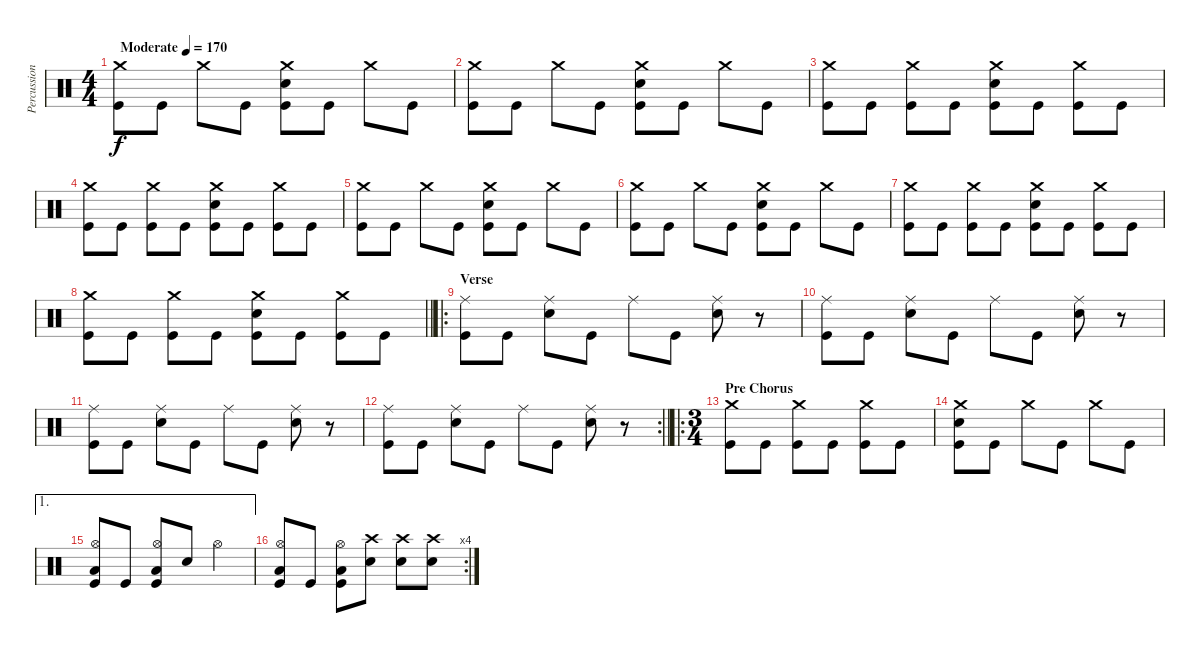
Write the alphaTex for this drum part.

\track ("Percussion" "Percussion") {instrument percussion}
\staff {score}
\articulation defaults
\ts (4 4)
\tempo (170 "Moderate")
\clef neutral
\ks c
("Crash medium (hit)" "Kick (hit)").8{dy f} "Kick (hit)".8 "Crash medium (hit)".8 "Kick (hit)".8 ("Crash medium (hit)" "Snare (hit) 2" "Kick (hit)").8 "Kick (hit)".8 "Crash medium (hit)".8 "Kick (hit)".8 |
("Crash medium (hit)" "Kick (hit)").8 "Kick (hit)".8 "Crash medium (hit)".8 "Kick (hit)".8 ("Crash medium (hit)" "Snare (hit) 2" "Kick (hit)").8 "Kick (hit)".8 "Crash medium (hit)".8 "Kick (hit)".8 |
("Crash medium (hit)" "Kick (hit)").8 "Kick (hit)".8 ("Crash medium (hit)" "Kick (hit)").8 "Kick (hit)".8 ("Crash medium (hit)" "Snare (hit) 2" "Kick (hit)").8 "Kick (hit)".8 ("Crash medium (hit)" "Kick (hit)").8 "Kick (hit)".8 |
("Crash medium (hit)" "Kick (hit)").8 "Kick (hit)".8 ("Crash medium (hit)" "Kick (hit)").8 "Kick (hit)".8 ("Crash medium (hit)" "Snare (hit) 2" "Kick (hit)").8 "Kick (hit)".8 ("Crash medium (hit)" "Kick (hit)").8 "Kick (hit)".8 |
("Crash medium (hit)" "Kick (hit)").8 "Kick (hit)".8 "Crash medium (hit)".8 "Kick (hit)".8 ("Crash medium (hit)" "Snare (hit) 2" "Kick (hit)").8 "Kick (hit)".8 "Crash medium (hit)".8 "Kick (hit)".8 |
("Crash medium (hit)" "Kick (hit)").8 "Kick (hit)".8 "Crash medium (hit)".8 "Kick (hit)".8 ("Crash medium (hit)" "Snare (hit) 2" "Kick (hit)").8 "Kick (hit)".8 "Crash medium (hit)".8 "Kick (hit)".8 |
("Crash medium (hit)" "Kick (hit)").8 "Kick (hit)".8 ("Crash medium (hit)" "Kick (hit)").8 "Kick (hit)".8 ("Crash medium (hit)" "Snare (hit) 2" "Kick (hit)").8 "Kick (hit)".8 ("Crash medium (hit)" "Kick (hit)").8 "Kick (hit)".8 |
\barLineRight lightlight
("Crash medium (hit)" "Kick (hit)").8 "Kick (hit)".8 ("Crash medium (hit)" "Kick (hit)").8 "Kick (hit)".8 ("Crash medium (hit)" "Snare (hit) 2" "Kick (hit)").8 "Kick (hit)".8 ("Crash medium (hit)" "Kick (hit)").8 "Kick (hit)".8 |
\ro
\section ("" "Verse")
("Ride (middle)" "Kick (hit)").8 "Kick (hit)".8 ("Ride (middle)" "Snare (hit) 2").8 "Kick (hit)".8 "Ride (middle)".8 "Kick (hit)".8 ("Ride (middle)" "Snare (hit) 2").8 r.8 |
("Ride (middle)" "Kick (hit)").8 "Kick (hit)".8 ("Ride (middle)" "Snare (hit) 2").8 "Kick (hit)".8 "Ride (middle)".8 "Kick (hit)".8 ("Ride (middle)" "Snare (hit) 2").8 r.8 |
("Ride (middle)" "Kick (hit)").8 "Kick (hit)".8 ("Ride (middle)" "Snare (hit) 2").8 "Kick (hit)".8 "Ride (middle)".8 "Kick (hit)".8 ("Ride (middle)" "Snare (hit) 2").8 r.8 |
\rc 2
\barLineRight lightlight
("Ride (middle)" "Kick (hit)").8 "Kick (hit)".8 ("Ride (middle)" "Snare (hit) 2").8 "Kick (hit)".8 "Ride (middle)".8 "Kick (hit)".8 ("Ride (middle)" "Snare (hit) 2").8 r.8 |
\ro
\ts (3 4)
\section ("" "Pre Chorus")
("Crash medium (hit)" "Kick (hit)").8 "Kick (hit)".8 ("Crash medium (hit)" "Kick (hit)").8 "Kick (hit)".8 ("Crash medium (hit)" "Kick (hit)").8 "Kick (hit)".8 |
("Crash medium (hit)" "Snare (hit) 2" "Kick (hit)").8 "Kick (hit)".8 "Crash medium (hit)".8 "Kick (hit)".8 "Crash medium (hit)".8 "Kick (hit)".8 |
\ae 1
("Hi-Hat (open)" "Low Floor Tom (hit)" "Kick (hit)").8 "Kick (hit)".8 ("Hi-Hat (open)" "Low Floor Tom (hit)" "Kick (hit)").8 "Snare (hit) 2".8 "Hi-Hat (open)".4 |
\rc 4
("Hi-Hat (open)" "Low Floor Tom (hit)" "Kick (hit)").8 "Kick (hit)".8 ("Hi-Hat (open)" "Low Floor Tom (hit)" "Kick (hit)").8 ("Crash high (hit)" "Snare (hit) 2").8 ("Crash high (hit)" "Snare (hit) 2").8 ("Crash high (hit)" "Snare (hit) 2").8
